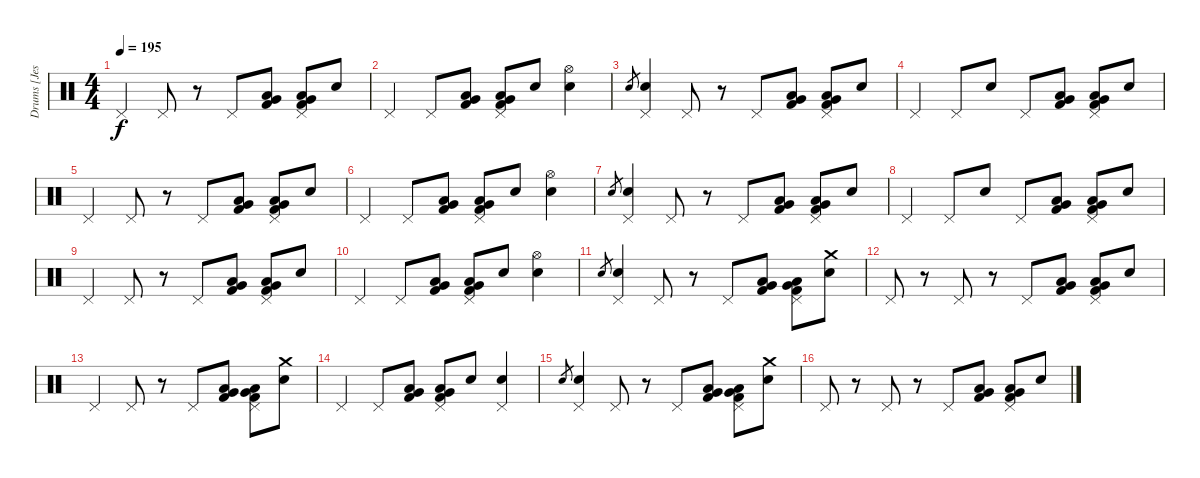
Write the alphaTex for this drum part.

\track ("Drums [Jesse Ingelevics]" "Drums [Jes") {instrument percussion}
\staff {score}
\articulation defaults
\ts (4 4)
\tempo 195
\clef neutral
\ks c "Pedal Hi-Hat (hit)".4{dy f} "Pedal Hi-Hat (hit)".8
r.8 "Pedal Hi-Hat (hit)".8 ("Very Low Tom (hit)" "Low Floor Tom (hit)" "Kick (hit) 2").8 ("Pedal Hi-Hat (hit)" "Very Low Tom (hit)" "Low Floor Tom (hit)" "Kick (hit) 2").8 "Electric Snare (hit)".8 |
"Pedal Hi-Hat (hit)".4 "Pedal Hi-Hat (hit)".8 ("Very Low Tom (hit)" "Low Floor Tom (hit)" "Kick (hit) 2").8 ("Pedal Hi-Hat (hit)" "Very Low Tom (hit)" "Low Floor Tom (hit)" "Kick (hit) 2").8 "Electric Snare (hit)".8 ("Hi-Hat (open)" "Electric Snare (hit)").4 |
"Electric Snare (hit)".8{gr} ("Pedal Hi-Hat (hit)" "Electric Snare (hit)").4 "Pedal Hi-Hat (hit)".8 r.8 "Pedal Hi-Hat (hit)".8 ("Very Low Tom (hit)" "Low Floor Tom (hit)" "Kick (hit) 2").8 ("Pedal Hi-Hat (hit)" "Very Low Tom (hit)" "Low Floor Tom (hit)" "Kick (hit) 2").8 "Electric Snare (hit)".8 |
"Pedal Hi-Hat (hit)".4 "Pedal Hi-Hat (hit)".8 "Electric Snare (hit)".8 "Pedal Hi-Hat (hit)".8 ("Very Low Tom (hit)" "Low Floor Tom (hit)" "Kick (hit) 2").8 ("Pedal Hi-Hat (hit)" "Very Low Tom (hit)" "Low Floor Tom (hit)" "Kick (hit) 2").8 "Electric Snare (hit)".8 |
"Pedal Hi-Hat (hit)".4 "Pedal Hi-Hat (hit)".8 r.8 "Pedal Hi-Hat (hit)".8 ("Very Low Tom (hit)" "Low Floor Tom (hit)" "Kick (hit) 2").8 ("Pedal Hi-Hat (hit)" "Very Low Tom (hit)" "Low Floor Tom (hit)" "Kick (hit) 2").8 "Electric Snare (hit)".8 |
"Pedal Hi-Hat (hit)".4 "Pedal Hi-Hat (hit)".8 ("Very Low Tom (hit)" "Low Floor Tom (hit)" "Kick (hit) 2").8 ("Pedal Hi-Hat (hit)" "Very Low Tom (hit)" "Low Floor Tom (hit)" "Kick (hit) 2").8 "Electric Snare (hit)".8 ("Hi-Hat (open)" "Electric Snare (hit)").4 |
"Electric Snare (hit)".8{gr} ("Pedal Hi-Hat (hit)" "Electric Snare (hit)").4 "Pedal Hi-Hat (hit)".8 r.8 "Pedal Hi-Hat (hit)".8 ("Very Low Tom (hit)" "Low Floor Tom (hit)" "Kick (hit) 2").8 ("Pedal Hi-Hat (hit)" "Very Low Tom (hit)" "Low Floor Tom (hit)" "Kick (hit) 2").8 "Electric Snare (hit)".8 |
"Pedal Hi-Hat (hit)".4 "Pedal Hi-Hat (hit)".8 "Electric Snare (hit)".8 "Pedal Hi-Hat (hit)".8 ("Very Low Tom (hit)" "Low Floor Tom (hit)" "Kick (hit) 2").8 ("Pedal Hi-Hat (hit)" "Very Low Tom (hit)" "Low Floor Tom (hit)" "Kick (hit) 2").8 "Electric Snare (hit)".8 |
"Pedal Hi-Hat (hit)".4 "Pedal Hi-Hat (hit)".8 r.8 "Pedal Hi-Hat (hit)".8 ("Very Low Tom (hit)" "Low Floor Tom (hit)" "Kick (hit) 2").8 ("Pedal Hi-Hat (hit)" "Very Low Tom (hit)" "Low Floor Tom (hit)" "Kick (hit) 2").8 "Electric Snare (hit)".8 |
"Pedal Hi-Hat (hit)".4 "Pedal Hi-Hat (hit)".8 ("Very Low Tom (hit)" "Low Floor Tom (hit)" "Kick (hit) 2").8 ("Pedal Hi-Hat (hit)" "Very Low Tom (hit)" "Low Floor Tom (hit)" "Kick (hit) 2").8 "Electric Snare (hit)".8 ("Hi-Hat (open)" "Electric Snare (hit)").4 |
"Electric Snare (hit)".8{gr} ("Pedal Hi-Hat (hit)" "Electric Snare (hit)").4 "Pedal Hi-Hat (hit)".8 r.8 "Pedal Hi-Hat (hit)".8 ("Very Low Tom (hit)" "Low Floor Tom (hit)" "Kick (hit) 2").8 ("Pedal Hi-Hat (hit)" "Very Low Tom (hit)" "Low Floor Tom (hit)" "Kick (hit) 2").8 ("Crash medium (hit)" "Electric Snare (hit)").8 |
"Pedal Hi-Hat (hit)".8 r.8 "Pedal Hi-Hat (hit)".8 r.8 "Pedal Hi-Hat (hit)".8 ("Very Low Tom (hit)" "Low Floor Tom (hit)" "Kick (hit) 2").8 ("Pedal Hi-Hat (hit)" "Very Low Tom (hit)" "Low Floor Tom (hit)" "Kick (hit) 2").8 "Electric Snare (hit)".8 |
"Pedal Hi-Hat (hit)".4 "Pedal Hi-Hat (hit)".8 r.8 "Pedal Hi-Hat (hit)".8 ("Very Low Tom (hit)" "Low Floor Tom (hit)" "Kick (hit) 2").8 ("Pedal Hi-Hat (hit)" "Very Low Tom (hit)" "Low Floor Tom (hit)" "Kick (hit) 2").8 ("Crash medium (hit)" "Electric Snare (hit)").8 |
"Pedal Hi-Hat (hit)".4 "Pedal Hi-Hat (hit)".8 ("Very Low Tom (hit)" "Low Floor Tom (hit)" "Kick (hit) 2").8 ("Pedal Hi-Hat (hit)" "Very Low Tom (hit)" "Low Floor Tom (hit)" "Kick (hit) 2").8 "Electric Snare (hit)".8 ("Pedal Hi-Hat (hit)" "Electric Snare (hit)").4 |
"Electric Snare (hit)".8{gr} ("Pedal Hi-Hat (hit)" "Electric Snare (hit)").4 "Pedal Hi-Hat (hit)".8 r.8 "Pedal Hi-Hat (hit)".8 ("Very Low Tom (hit)" "Low Floor Tom (hit)" "Kick (hit) 2").8 ("Pedal Hi-Hat (hit)" "Very Low Tom (hit)" "Low Floor Tom (hit)" "Kick (hit) 2").8 ("Crash medium (hit)" "Electric Snare (hit)").8 |
"Pedal Hi-Hat (hit)".8 r.8 "Pedal Hi-Hat (hit)".8 r.8 "Pedal Hi-Hat (hit)".8 ("Very Low Tom (hit)" "Low Floor Tom (hit)" "Kick (hit) 2").8 ("Pedal Hi-Hat (hit)" "Very Low Tom (hit)" "Low Floor Tom (hit)" "Kick (hit) 2").8 "Electric Snare (hit)".8
